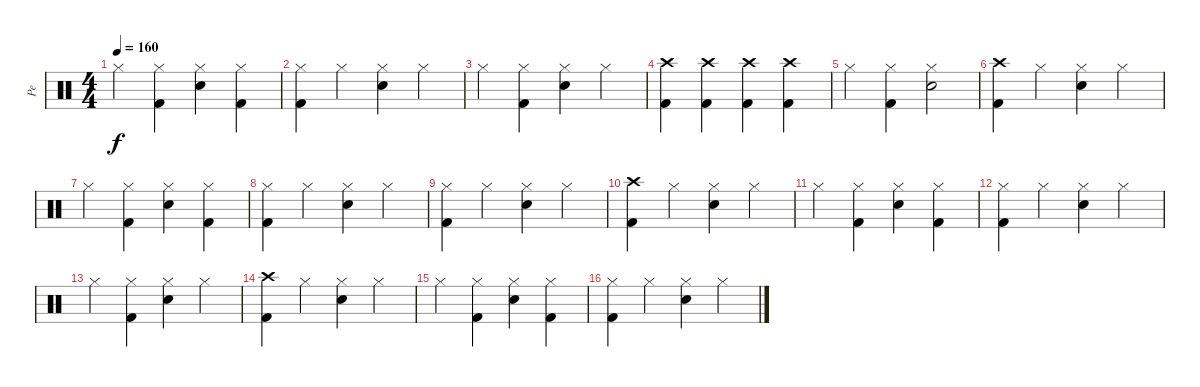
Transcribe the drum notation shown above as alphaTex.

\track ("Pe" "Pe") {instrument percussion}
\staff {score}
\articulation defaults
\ts (4 4)
\tempo 160
\clef neutral
\ks c "Hi-Hat (closed)".4{dy f}
("Hi-Hat (closed)" "Kick (hit) 2").4 ("Hi-Hat (closed)" "Snare (hit) 2").4 ("Hi-Hat (closed)" "Kick (hit) 2").4 |
("Hi-Hat (closed)" "Kick (hit) 2").4 "Hi-Hat (closed)".4 ("Hi-Hat (closed)" "Snare (hit) 2").4 "Hi-Hat (closed)".4 |
"Hi-Hat (closed)".4 ("Hi-Hat (closed)" "Kick (hit) 2").4 ("Hi-Hat (closed)" "Snare (hit) 2").4 "Hi-Hat (closed)".4 |
("Crash high (hit)" "Kick (hit) 2").4 ("Crash high (hit)" "Kick (hit) 2").4 ("Crash high (hit)" "Kick (hit) 2").4 ("Crash high (hit)" "Kick (hit) 2").4 |
"Hi-Hat (closed)".4 ("Hi-Hat (closed)" "Kick (hit) 2").4 ("Hi-Hat (closed)" "Snare (hit) 2").2 |
("Crash high (hit)" "Kick (hit) 2").4 "Hi-Hat (closed)".4 ("Hi-Hat (closed)" "Snare (hit) 2").4 "Hi-Hat (closed)".4 |
"Hi-Hat (closed)".4 ("Hi-Hat (closed)" "Kick (hit) 2").4 ("Hi-Hat (closed)" "Snare (hit) 2").4 ("Hi-Hat (closed)" "Kick (hit) 2").4 |
("Hi-Hat (closed)" "Kick (hit) 2").4 "Hi-Hat (closed)".4 ("Hi-Hat (closed)" "Snare (hit) 2").4 "Hi-Hat (closed)".4 |
("Hi-Hat (closed)" "Kick (hit) 2").4 "Hi-Hat (closed)".4 ("Hi-Hat (closed)" "Snare (hit) 2").4 "Hi-Hat (closed)".4 |
("Crash high (hit)" "Kick (hit) 2").4 "Hi-Hat (closed)".4 ("Hi-Hat (closed)" "Snare (hit) 2").4 "Hi-Hat (closed)".4 |
"Hi-Hat (closed)".4 ("Hi-Hat (closed)" "Kick (hit) 2").4 ("Hi-Hat (closed)" "Snare (hit) 2").4 ("Hi-Hat (closed)" "Kick (hit) 2").4 |
("Hi-Hat (closed)" "Kick (hit) 2").4 "Hi-Hat (closed)".4 ("Hi-Hat (closed)" "Snare (hit) 2").4 "Hi-Hat (closed)".4 |
"Hi-Hat (closed)".4 ("Hi-Hat (closed)" "Kick (hit) 2").4 ("Hi-Hat (closed)" "Snare (hit) 2").4 "Hi-Hat (closed)".4 |
("Crash high (hit)" "Kick (hit) 2").4 "Hi-Hat (closed)".4 ("Hi-Hat (closed)" "Snare (hit) 2").4 "Hi-Hat (closed)".4 |
"Hi-Hat (closed)".4 ("Hi-Hat (closed)" "Kick (hit) 2").4 ("Hi-Hat (closed)" "Snare (hit) 2").4 ("Hi-Hat (closed)" "Kick (hit) 2").4 |
("Hi-Hat (closed)" "Kick (hit) 2").4 "Hi-Hat (closed)".4 ("Hi-Hat (closed)" "Snare (hit) 2").4 "Hi-Hat (closed)".4
